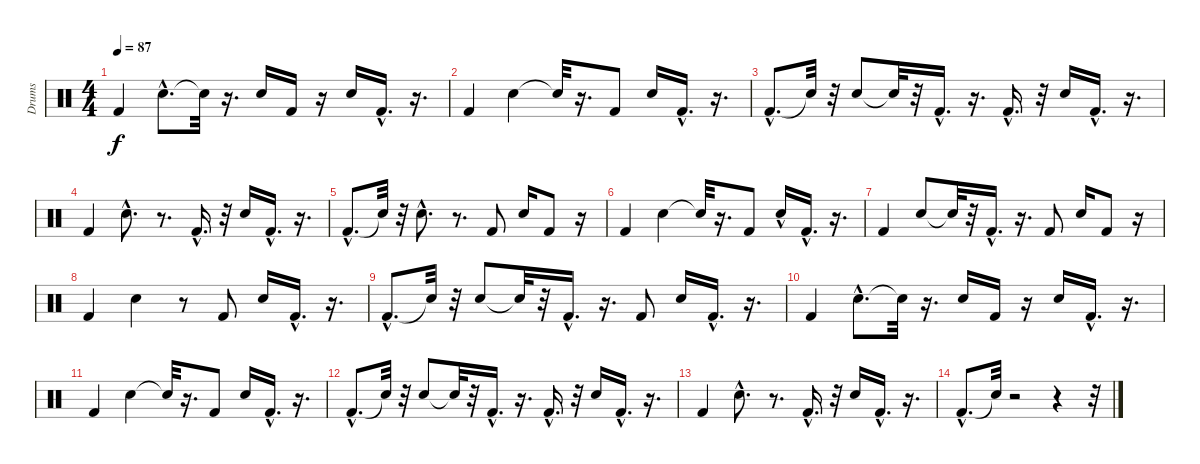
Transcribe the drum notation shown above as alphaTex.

\track ("Drums" "Drums") {instrument percussion}
\staff {score}
\articulation defaults
\ts (4 4)
\tempo 87
\clef neutral
\ks c "Kick (hit) 2".4{dy f} "Electric Snare (hit)"{hac}.8{d} "Snare (hit)"{t}.32
r.16{d} "Electric Snare (hit)".16 "Kick (hit) 2".16 r.16 "Electric Snare (hit)".16 "Kick (hit) 2"{hac}.16{d} r.16{d} |
"Kick (hit) 2".4 "Electric Snare (hit)".4 "Snare (hit)"{t}.32 r.16{d} "Kick (hit) 2".8 "Electric Snare (hit)".16 "Kick (hit) 2"{hac}.16{d} r.16{d} |
"Kick (hit) 2"{hac}.8{d} "Snare (hit)"{t}.32 r.32 "Electric Snare (hit)".8 "Snare (hit)"{t}.32 r.32 "Kick (hit) 2"{hac}.16{d} r.16{d} "Kick (hit) 2"{hac}.16{d} r.32 "Electric Snare (hit)".16 "Kick (hit) 2"{hac}.16{d} r.16{d} |
"Kick (hit) 2".4 "Electric Snare (hit)"{hac}.8{d} r.8{d} "Kick (hit) 2"{hac}.16{d} r.32 "Electric Snare (hit)".16 "Kick (hit) 2"{hac}.16{d} r.16{d} |
"Kick (hit) 2"{hac}.8{d} "Snare (hit)"{t}.32 r.32 "Electric Snare (hit)"{hac}.8{d} r.8{d} "Kick (hit) 2".8 "Electric Snare (hit)".16 "Kick (hit) 2".8 r.16 |
"Kick (hit) 2".4 "Electric Snare (hit)".4 "Snare (hit)"{t}.32 r.16{d} "Kick (hit) 2".8 "Electric Snare (hit)"{hac}.16 "Kick (hit) 2"{hac}.16{d} r.16{d} |
"Kick (hit) 2".4 "Electric Snare (hit)".8 "Snare (hit)"{t}.32 r.32 "Kick (hit) 2"{hac}.16{d} r.16{d} "Kick (hit) 2".8 "Electric Snare (hit)".16 "Kick (hit) 2".8 r.16 |
"Kick (hit) 2".4 "Electric Snare (hit)".4 r.8 "Kick (hit) 2".8 "Electric Snare (hit)".16 "Kick (hit) 2"{hac}.16{d} r.16{d} |
"Kick (hit) 2"{hac}.8{d} "Snare (hit)"{t}.32 r.32 "Electric Snare (hit)".8 "Snare (hit)"{t}.32 r.32 "Kick (hit) 2"{hac}.16{d} r.16{d} "Kick (hit) 2".8 "Electric Snare (hit)".16 "Kick (hit) 2"{hac}.16{d} r.16{d} |
"Kick (hit) 2".4 "Electric Snare (hit)"{hac}.8{d} "Snare (hit)"{t}.32 r.16{d} "Electric Snare (hit)".16 "Kick (hit) 2".16 r.16 "Electric Snare (hit)".16 "Kick (hit) 2"{hac}.16{d} r.16{d} |
"Kick (hit) 2".4 "Electric Snare (hit)".4 "Snare (hit)"{t}.32 r.16{d} "Kick (hit) 2".8 "Electric Snare (hit)".16 "Kick (hit) 2"{hac}.16{d} r.16{d} |
"Kick (hit) 2"{hac}.8{d} "Snare (hit)"{t}.32 r.32 "Electric Snare (hit)".8 "Snare (hit)"{t}.32 r.32 "Kick (hit) 2"{hac}.16{d} r.16{d} "Kick (hit) 2"{hac}.16{d} r.32 "Electric Snare (hit)".16 "Kick (hit) 2"{hac}.16{d} r.16{d} |
"Kick (hit) 2".4 "Electric Snare (hit)"{hac}.8{d} r.8{d} "Kick (hit) 2"{hac}.16{d} r.32 "Electric Snare (hit)".16 "Kick (hit) 2"{hac}.16{d} r.16{d} |
"Kick (hit) 2"{hac}.8{d} "Snare (hit)"{t}.32 r.2 r.4 r.32
